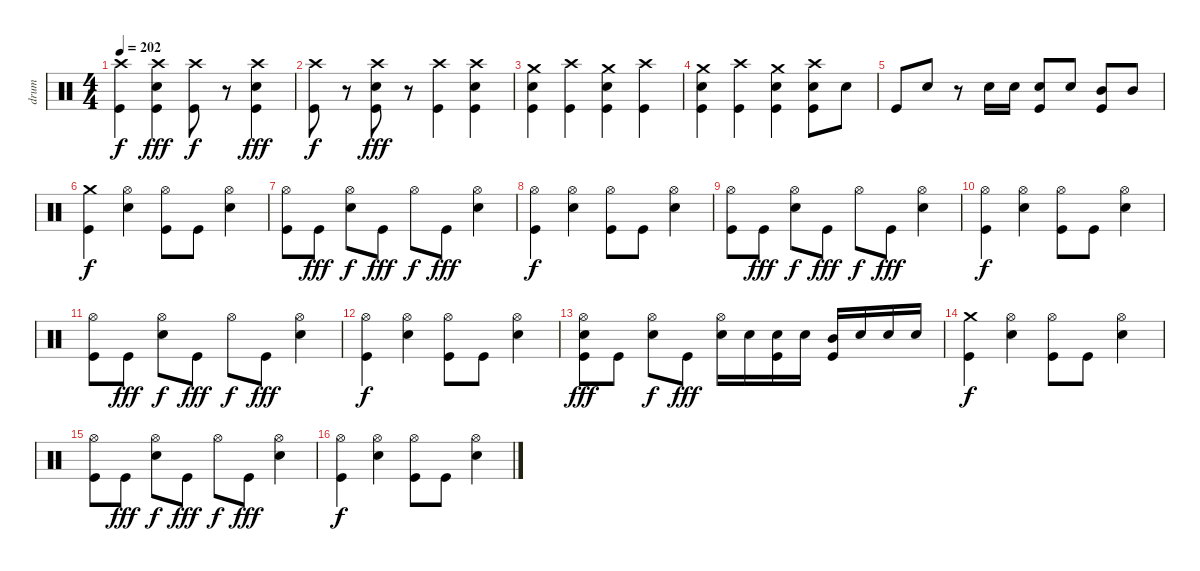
\track ("drum" "drum") {instrument percussion}
\staff {score}
\articulation defaults
\ts (4 4)
\tempo 202
\clef neutral
\ks c
("Crash high (hit)" "Kick (hit)").4{dy f} ("Crash high (hit)" "Electric Snare (hit)" "Kick (hit)").4{dy fff} ("Crash high (hit)" "Kick (hit)").8{dy f} r.8 ("Crash high (hit)" "Electric Snare (hit)" "Kick (hit)").4{dy fff} |
("Crash high (hit)" "Kick (hit)").8{dy f} r.8 ("Crash high (hit)" "Electric Snare (hit)" "Kick (hit)").8{dy fff} r.8 ("Crash high (hit)" "Kick (hit)").4 ("Crash high (hit)" "Electric Snare (hit)" "Kick (hit)").4 |
("Crash medium (hit)" "Electric Snare (hit)" "Kick (hit)").4 ("Crash high (hit)" "Kick (hit)").4 ("Crash medium (hit)" "Electric Snare (hit)" "Kick (hit)").4 ("Crash high (hit)" "Kick (hit)").4 |
("Crash medium (hit)" "Electric Snare (hit)" "Kick (hit)").4 ("Crash high (hit)" "Kick (hit)").4 ("Crash medium (hit)" "Electric Snare (hit)" "Kick (hit)").4 ("Crash high (hit)" "Electric Snare (hit)" "Kick (hit)").8 "Electric Snare (hit)".8 |
"Kick (hit)".8 "Electric Snare (hit)".8 r.8 "Electric Snare (hit)".16 "Electric Snare (hit)".16 ("Electric Snare (hit)" "Kick (hit)").8 "Electric Snare (hit)".8 ("Mid Tom (hit)" "Kick (hit)").8 "Mid Tom (hit)".8 |
("Crash medium (hit)" "Kick (hit)").4{dy f} ("Hi-Hat (open)" "Electric Snare (hit)").4 ("Hi-Hat (open)" "Kick (hit)").8 "Kick (hit)".8 ("Hi-Hat (open)" "Electric Snare (hit)").4 |
("Hi-Hat (open)" "Kick (hit)").8 "Kick (hit)".8{dy fff} ("Hi-Hat (open)" "Electric Snare (hit)").8{dy f} "Kick (hit)".8{dy fff} "Hi-Hat (open)".8{dy f} "Kick (hit)".8{dy fff} ("Hi-Hat (open)" "Electric Snare (hit)").4 |
("Hi-Hat (open)" "Kick (hit)").4{dy f} ("Hi-Hat (open)" "Electric Snare (hit)").4 ("Hi-Hat (open)" "Kick (hit)").8 "Kick (hit)".8 ("Hi-Hat (open)" "Electric Snare (hit)").4 |
("Hi-Hat (open)" "Kick (hit)").8 "Kick (hit)".8{dy fff} ("Hi-Hat (open)" "Electric Snare (hit)").8{dy f} "Kick (hit)".8{dy fff} "Hi-Hat (open)".8{dy f} "Kick (hit)".8{dy fff} ("Hi-Hat (open)" "Electric Snare (hit)").4 |
("Hi-Hat (open)" "Kick (hit)").4{dy f} ("Hi-Hat (open)" "Electric Snare (hit)").4 ("Hi-Hat (open)" "Kick (hit)").8 "Kick (hit)".8 ("Hi-Hat (open)" "Electric Snare (hit)").4 |
("Hi-Hat (open)" "Kick (hit)").8 "Kick (hit)".8{dy fff} ("Hi-Hat (open)" "Electric Snare (hit)").8{dy f} "Kick (hit)".8{dy fff} "Hi-Hat (open)".8{dy f} "Kick (hit)".8{dy fff} ("Hi-Hat (open)" "Electric Snare (hit)").4 |
("Hi-Hat (open)" "Kick (hit)").4{dy f} ("Hi-Hat (open)" "Electric Snare (hit)").4 ("Hi-Hat (open)" "Kick (hit)").8 "Kick (hit)".8 ("Hi-Hat (open)" "Electric Snare (hit)").4 |
("Hi-Hat (open)" "Electric Snare (hit)" "Kick (hit)").8{dy fff} "Kick (hit)".8 ("Hi-Hat (open)" "Electric Snare (hit)").8{dy f} "Kick (hit)".8{dy fff} ("Hi-Hat (open)" "Electric Snare (hit)").16 "Electric Snare (hit)".16 ("Electric Snare (hit)" "Kick (hit)").16 "Electric Snare (hit)".16 ("Mid Tom (hit)" "Kick (hit)").16 "Electric Snare (hit)".16 "Electric Snare (hit)".16 "Electric Snare (hit)".16 |
("Crash medium (hit)" "Kick (hit)").4{dy f} ("Hi-Hat (open)" "Electric Snare (hit)").4 ("Hi-Hat (open)" "Kick (hit)").8 "Kick (hit)".8 ("Hi-Hat (open)" "Electric Snare (hit)").4 |
("Hi-Hat (open)" "Kick (hit)").8 "Kick (hit)".8{dy fff} ("Hi-Hat (open)" "Electric Snare (hit)").8{dy f} "Kick (hit)".8{dy fff} "Hi-Hat (open)".8{dy f} "Kick (hit)".8{dy fff} ("Hi-Hat (open)" "Electric Snare (hit)").4 |
("Hi-Hat (open)" "Kick (hit)").4{dy f} ("Hi-Hat (open)" "Electric Snare (hit)").4 ("Hi-Hat (open)" "Kick (hit)").8 "Kick (hit)".8 ("Hi-Hat (open)" "Electric Snare (hit)").4
